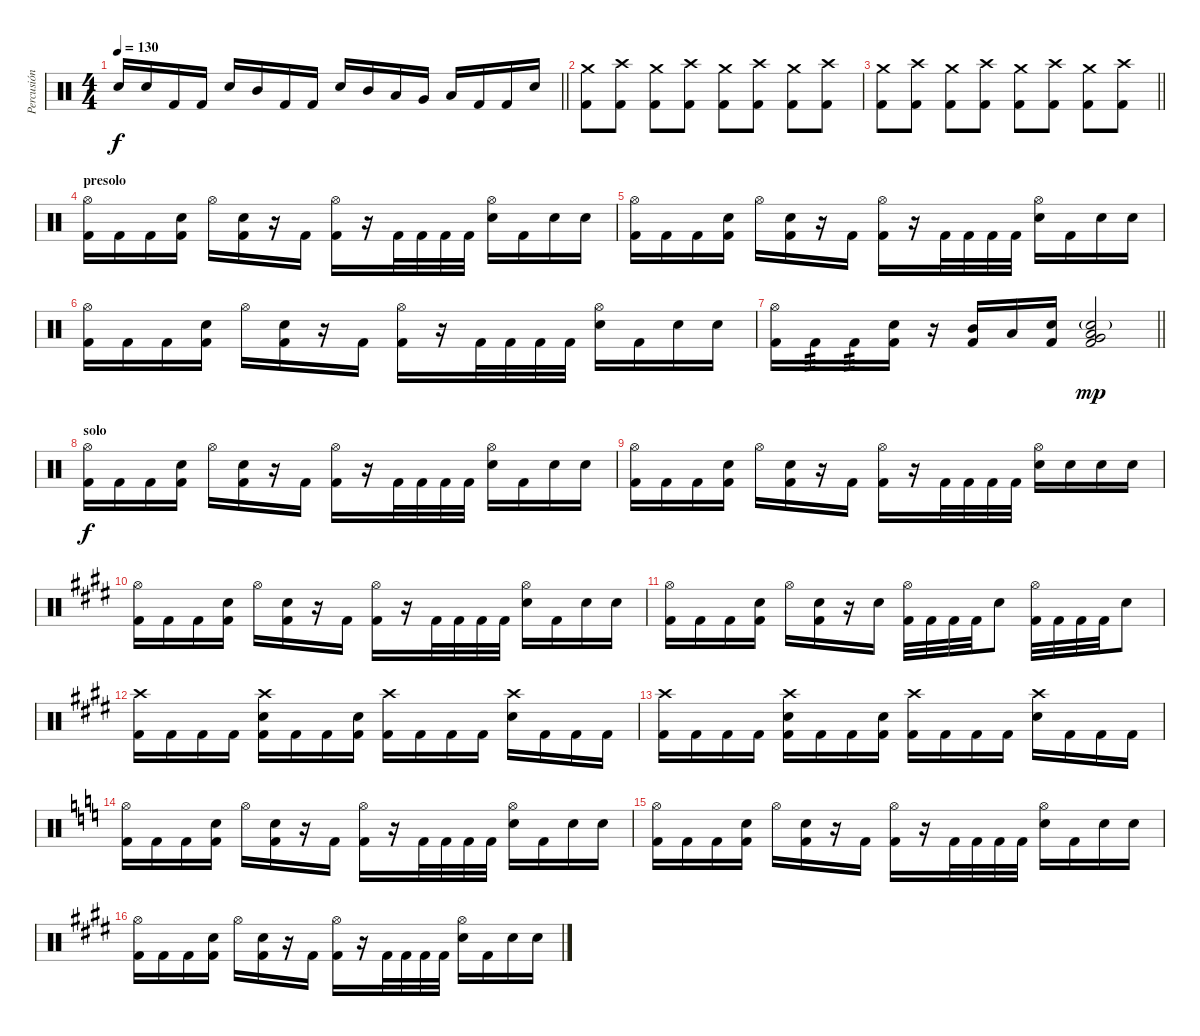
\track ("Percusión" "Percusión") {instrument percussion}
\staff {score}
\articulation defaults
\ts (4 4)
\tempo 130
\clef neutral
\barLineRight lightlight
\ks c "Electric Snare (hit)".16{dy f} "Electric Snare (hit)".16 "Kick (hit) 2".16 "Kick (hit) 2".16 "Electric Snare (hit)".16 "Mid Tom (hit)".16 "Kick (hit) 2".16 "Kick (hit) 2".16 "Electric Snare (hit)".16 "Mid Tom (hit)".16 "Low Tom (hit)".16 "Very Low Tom (hit)".16 "Low Floor Tom (hit)".16 "Kick (hit) 2".16 "Kick (hit) 2".16 "Electric Snare (hit)".16
|
("Crash medium (hit)" "Kick (hit) 2").8 ("Crash high (hit)" "Kick (hit) 2").8 ("Crash medium (hit)" "Kick (hit) 2").8 ("Crash high (hit)" "Kick (hit) 2").8 ("Crash medium (hit)" "Kick (hit) 2").8 ("Crash high (hit)" "Kick (hit) 2").8 ("Crash medium (hit)" "Kick (hit) 2").8 ("Crash high (hit)" "Kick (hit) 2").8 |
\barLineRight lightlight
("Crash medium (hit)" "Kick (hit) 2").8 ("Crash high (hit)" "Kick (hit) 2").8 ("Crash medium (hit)" "Kick (hit) 2").8 ("Crash high (hit)" "Kick (hit) 2").8 ("Crash medium (hit)" "Kick (hit) 2").8 ("Crash high (hit)" "Kick (hit) 2").8 ("Crash medium (hit)" "Kick (hit) 2").8 ("Crash high (hit)" "Kick (hit) 2").8 |
\section ("" "presolo")
("Hi-Hat (open)" "Kick (hit) 2").16 "Kick (hit) 2".16 "Kick (hit) 2".16 ("Electric Snare (hit)" "Kick (hit) 2").16 "Hi-Hat (open)".16 ("Electric Snare (hit)" "Kick (hit) 2").16 r.16 "Kick (hit) 2".16 ("Hi-Hat (open)" "Kick (hit) 2").16 r.16 "Kick (hit) 2".32 "Kick (hit) 2".32 "Kick (hit) 2".32 "Kick (hit) 2".32 ("Hi-Hat (open)" "Electric Snare (hit)").16 "Kick (hit) 2".16 "Electric Snare (hit)".16 "Electric Snare (hit)".16 |
("Hi-Hat (open)" "Kick (hit) 2").16 "Kick (hit) 2".16 "Kick (hit) 2".16 ("Electric Snare (hit)" "Kick (hit) 2").16 "Hi-Hat (open)".16 ("Electric Snare (hit)" "Kick (hit) 2").16 r.16 "Kick (hit) 2".16 ("Hi-Hat (open)" "Kick (hit) 2").16 r.16 "Kick (hit) 2".32 "Kick (hit) 2".32 "Kick (hit) 2".32 "Kick (hit) 2".32 ("Hi-Hat (open)" "Electric Snare (hit)").16 "Kick (hit) 2".16 "Electric Snare (hit)".16 "Electric Snare (hit)".16 |
("Hi-Hat (open)" "Kick (hit) 2").16 "Kick (hit) 2".16 "Kick (hit) 2".16 ("Electric Snare (hit)" "Kick (hit) 2").16 "Hi-Hat (open)".16 ("Electric Snare (hit)" "Kick (hit) 2").16 r.16 "Kick (hit) 2".16 ("Hi-Hat (open)" "Kick (hit) 2").16 r.16 "Kick (hit) 2".32 "Kick (hit) 2".32 "Kick (hit) 2".32 "Kick (hit) 2".32 ("Hi-Hat (open)" "Electric Snare (hit)").16 "Kick (hit) 2".16 "Electric Snare (hit)".16 "Electric Snare (hit)".16 |
\barLineRight lightlight
("Hi-Hat (open)" "Kick (hit) 2").16 "Kick (hit) 2".16{tp 3} "Kick (hit) 2".16{tp 3} ("Electric Snare (hit)" "Kick (hit) 2").16 r.16 ("Mid Tom (hit)" "Kick (hit) 2").16 "Low Tom (hit)".16 ("Snare (hit)" "Kick (hit) 2").16 ("Electric Snare (hit)"{g} "Low Tom (hit)" "Kick (hit) 2" "Very Low Tom (hit)").2{dy mp} |
\section ("" "solo")
("Hi-Hat (open)" "Kick (hit) 2").16{dy f} "Kick (hit) 2".16 "Kick (hit) 2".16 ("Electric Snare (hit)" "Kick (hit) 2").16 "Hi-Hat (open)".16 ("Electric Snare (hit)" "Kick (hit) 2").16 r.16 "Kick (hit) 2".16 ("Hi-Hat (open)" "Kick (hit) 2").16 r.16 "Kick (hit) 2".32 "Kick (hit) 2".32 "Kick (hit) 2".32 "Kick (hit) 2".32 ("Hi-Hat (open)" "Electric Snare (hit)").16 "Kick (hit) 2".16 "Electric Snare (hit)".16 "Electric Snare (hit)".16 |
("Hi-Hat (open)" "Kick (hit) 2").16 "Kick (hit) 2".16 "Kick (hit) 2".16 ("Electric Snare (hit)" "Kick (hit) 2").16 "Hi-Hat (open)".16 ("Electric Snare (hit)" "Kick (hit) 2").16 r.16 "Kick (hit) 2".16 ("Hi-Hat (open)" "Kick (hit) 2").16 r.16 "Kick (hit) 2".32 "Kick (hit) 2".32 "Kick (hit) 2".32 "Kick (hit) 2".32 ("Hi-Hat (open)" "Electric Snare (hit)").16 "Electric Snare (hit)".16 "Electric Snare (hit)".16 "Electric Snare (hit)".16 |
\ks c#minor
("Hi-Hat (open)" "Kick (hit) 2").16 "Kick (hit) 2".16 "Kick (hit) 2".16 ("Electric Snare (hit)" "Kick (hit) 2").16 "Hi-Hat (open)".16 ("Electric Snare (hit)" "Kick (hit) 2").16 r.16 "Kick (hit) 2".16 ("Hi-Hat (open)" "Kick (hit) 2").16 r.16 "Kick (hit) 2".32 "Kick (hit) 2".32 "Kick (hit) 2".32 "Kick (hit) 2".32 ("Hi-Hat (open)" "Electric Snare (hit)").16 "Kick (hit) 2".16 "Electric Snare (hit)".16 "Electric Snare (hit)".16 |
("Hi-Hat (open)" "Kick (hit) 2").16 "Kick (hit) 2".16 "Kick (hit) 2".16 ("Electric Snare (hit)" "Kick (hit) 2").16 "Hi-Hat (open)".16 ("Electric Snare (hit)" "Kick (hit) 2").16 r.16 "Electric Snare (hit)".16 ("Hi-Hat (open)" "Kick (hit) 2").32 "Kick (hit) 2".32 "Kick (hit) 2".32 "Kick (hit) 2".32 "Electric Snare (hit)".8 ("Hi-Hat (open)" "Kick (hit) 2").32 "Kick (hit) 2".32 "Kick (hit) 2".32 "Kick (hit) 2".32 "Electric Snare (hit)".8 |
("Crash high (hit)" "Kick (hit) 2").16 "Kick (hit) 2".16 "Kick (hit) 2".16 "Kick (hit) 2".16 ("Electric Snare (hit)" "Crash high (hit)" "Kick (hit) 2").16 "Kick (hit) 2".16 "Kick (hit) 2".16 ("Snare (hit)" "Kick (hit) 2").16 ("Crash high (hit)" "Kick (hit) 2").16 "Kick (hit) 2".16 "Kick (hit) 2".16 "Kick (hit) 2".16 ("Crash high (hit)" "Electric Snare (hit)").16 "Kick (hit) 2".16 "Kick (hit) 2".16 "Kick (hit) 2".16 |
("Crash high (hit)" "Kick (hit) 2").16 "Kick (hit) 2".16 "Kick (hit) 2".16 "Kick (hit) 2".16 ("Electric Snare (hit)" "Crash high (hit)" "Kick (hit) 2").16 "Kick (hit) 2".16 "Kick (hit) 2".16 ("Snare (hit)" "Kick (hit) 2").16 ("Crash high (hit)" "Kick (hit) 2").16 "Kick (hit) 2".16 "Kick (hit) 2".16 "Kick (hit) 2".16 ("Crash high (hit)" "Electric Snare (hit)").16 "Kick (hit) 2".16 "Kick (hit) 2".16 "Kick (hit) 2".16 |
\ks c
("Hi-Hat (open)" "Kick (hit) 2").16 "Kick (hit) 2".16 "Kick (hit) 2".16 ("Electric Snare (hit)" "Kick (hit) 2").16 "Hi-Hat (open)".16 ("Electric Snare (hit)" "Kick (hit) 2").16 r.16 "Kick (hit) 2".16 ("Hi-Hat (open)" "Kick (hit) 2").16 r.16 "Kick (hit) 2".32 "Kick (hit) 2".32 "Kick (hit) 2".32 "Kick (hit) 2".32 ("Hi-Hat (open)" "Electric Snare (hit)").16 "Kick (hit) 2".16 "Electric Snare (hit)".16 "Electric Snare (hit)".16 |
("Hi-Hat (open)" "Kick (hit) 2").16 "Kick (hit) 2".16 "Kick (hit) 2".16 ("Electric Snare (hit)" "Kick (hit) 2").16 "Hi-Hat (open)".16 ("Electric Snare (hit)" "Kick (hit) 2").16 r.16 "Kick (hit) 2".16 ("Hi-Hat (open)" "Kick (hit) 2").16 r.16 "Kick (hit) 2".32 "Kick (hit) 2".32 "Kick (hit) 2".32 "Kick (hit) 2".32 ("Hi-Hat (open)" "Electric Snare (hit)").16 "Kick (hit) 2".16 "Electric Snare (hit)".16 "Electric Snare (hit)".16 |
\ks c#minor
("Hi-Hat (open)" "Kick (hit) 2").16 "Kick (hit) 2".16 "Kick (hit) 2".16 ("Electric Snare (hit)" "Kick (hit) 2").16 "Hi-Hat (open)".16 ("Electric Snare (hit)" "Kick (hit) 2").16 r.16 "Kick (hit) 2".16 ("Hi-Hat (open)" "Kick (hit) 2").16 r.16 "Kick (hit) 2".32 "Kick (hit) 2".32 "Kick (hit) 2".32 "Kick (hit) 2".32 ("Hi-Hat (open)" "Electric Snare (hit)").16 "Kick (hit) 2".16 "Electric Snare (hit)".16 "Electric Snare (hit)".16
